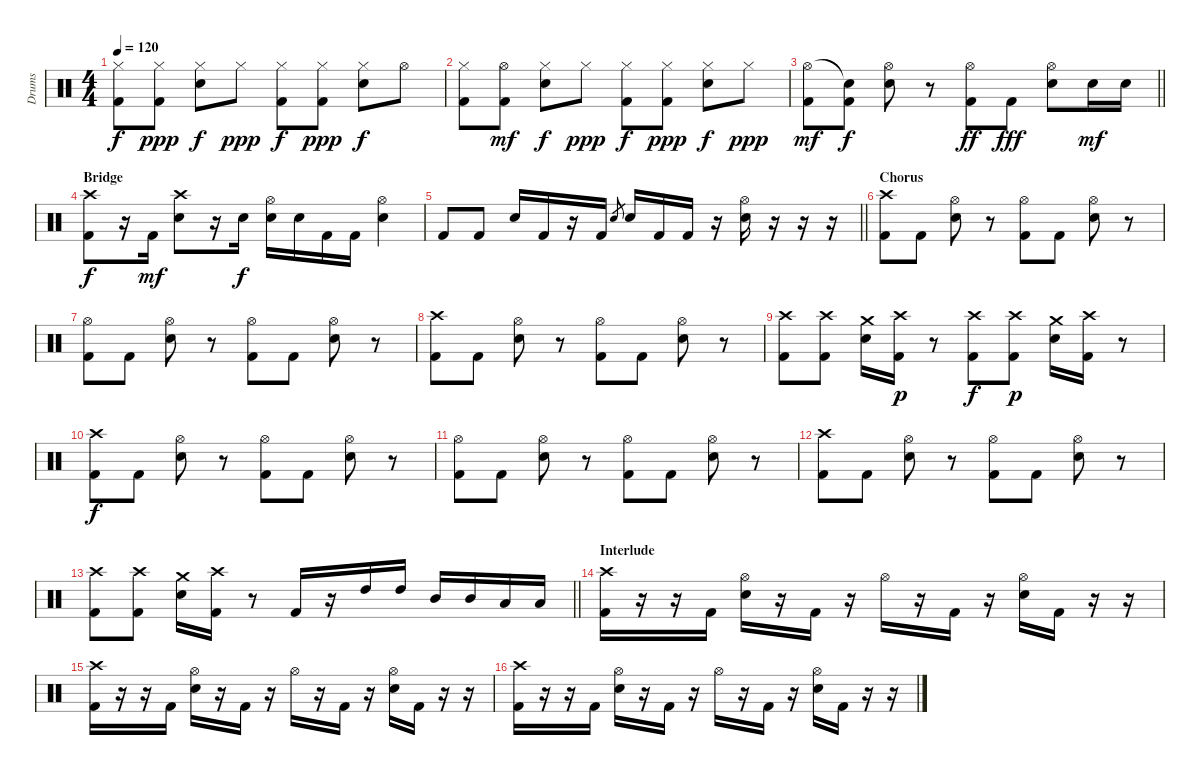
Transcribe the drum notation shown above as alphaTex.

\track ("Drums" "Drums") {instrument percussion}
\staff {score}
\articulation defaults
\ts (4 4)
\tempo 120
\clef neutral
\ks c
("Hi-Hat (closed)" "Kick (hit) 2").8{dy f} ("Hi-Hat (closed)" "Kick (hit) 2").8{dy ppp} ("Hi-Hat (closed)" "Snare (hit) 2").8{dy f} "Hi-Hat (closed)".8{dy ppp} ("Hi-Hat (closed)" "Kick (hit) 2").8{dy f} ("Hi-Hat (closed)" "Kick (hit) 2").8{dy ppp} ("Hi-Hat (closed)" "Snare (hit) 2").8{dy f} "Hi-Hat (open)".8 |
("Hi-Hat (closed)" "Kick (hit) 2").8 ("Hi-Hat (open)" "Kick (hit) 2").8{dy mf} ("Hi-Hat (closed)" "Snare (hit) 2").8{dy f} "Hi-Hat (closed)".8{dy ppp} ("Hi-Hat (closed)" "Kick (hit) 2").8{dy f} ("Hi-Hat (closed)" "Kick (hit) 2").8{dy ppp} ("Hi-Hat (closed)" "Snare (hit) 2").8{dy f} "Hi-Hat (closed)".8{dy ppp} |
\barLineRight lightlight
("Hi-Hat (open)" "Kick (hit) 2").8{dy mf} ("Snare (hit)"{t} "Kick (hit) 2").8{dy f} ("Hi-Hat (open)" "Snare (hit) 2").8 r.8 ("Hi-Hat (open)" "Kick (hit) 2").8{dy ff} "Kick (hit) 2".8{dy fff} ("Hi-Hat (open)" "Snare (hit) 2").8 "Snare (hit) 2".16{dy mf} "Snare (hit) 2".16 |
\section ("" "Bridge")
("Crash high (hit)" "Kick (hit) 2").8{dy f} r.16 "Kick (hit) 2".16{dy mf} ("Crash high (hit)" "Electric Snare (hit)").8 r.16 "Snare (hit) 2".16{dy f} ("Hi-Hat (open)" "Snare (hit) 2").16 "Snare (hit) 2".16 "Kick (hit) 2".16 "Kick (hit) 2".16 ("Hi-Hat (open)" "Snare (hit) 2").4 |
\barLineRight lightlight "Kick (hit) 2".8 "Kick (hit) 2".8 "Snare (hit) 2".16 "Kick (hit) 2".16
r.16 "Kick (hit) 2".16 "Snare (hit) 2".8{gr} "Snare (hit) 2".16 "Kick (hit) 2".16 "Kick (hit) 2".16 r.16 ("Hi-Hat (open)" "Snare (hit) 2").16 r.16 r.16 r.16 |
\section ("" "Chorus")
("Crash high (hit)" "Kick (hit) 2").8 "Kick (hit) 2".8 ("Hi-Hat (open)" "Snare (hit) 2").8 r.8 ("Hi-Hat (open)" "Kick (hit) 2").8 "Kick (hit) 2".8 ("Hi-Hat (open)" "Snare (hit) 2").8 r.8 |
("Hi-Hat (open)" "Kick (hit) 2").8 "Kick (hit) 2".8 ("Hi-Hat (open)" "Snare (hit) 2").8 r.8 ("Hi-Hat (open)" "Kick (hit) 2").8 "Kick (hit) 2".8 ("Hi-Hat (open)" "Snare (hit) 2").8 r.8 |
("Crash high (hit)" "Kick (hit) 2").8 "Kick (hit) 2".8 ("Hi-Hat (open)" "Snare (hit) 2").8 r.8 ("Hi-Hat (open)" "Kick (hit) 2").8 "Kick (hit) 2".8 ("Hi-Hat (open)" "Snare (hit) 2").8 r.8 |
("Crash high (hit)" "Kick (hit) 2").8 ("Crash high (hit)" "Kick (hit) 2").8 ("Crash medium (hit)" "Snare (hit) 2").16 ("Crash high (hit)" "Kick (hit) 2").16{dy p} r.8 ("Crash high (hit)" "Kick (hit) 2").8{dy f} ("Crash high (hit)" "Kick (hit) 2").8{dy p} ("Crash medium (hit)" "Snare (hit) 2").16 ("Crash high (hit)" "Kick (hit) 2").16 r.8 |
("Crash high (hit)" "Kick (hit) 2").8{dy f} "Kick (hit) 2".8 ("Hi-Hat (open)" "Snare (hit) 2").8 r.8 ("Hi-Hat (open)" "Kick (hit) 2").8 "Kick (hit) 2".8 ("Hi-Hat (open)" "Snare (hit) 2").8 r.8 |
("Hi-Hat (open)" "Kick (hit) 2").8 "Kick (hit) 2".8 ("Hi-Hat (open)" "Snare (hit) 2").8 r.8 ("Hi-Hat (open)" "Kick (hit) 2").8 "Kick (hit) 2".8 ("Hi-Hat (open)" "Snare (hit) 2").8 r.8 |
("Crash high (hit)" "Kick (hit) 2").8 "Kick (hit) 2".8 ("Hi-Hat (open)" "Snare (hit) 2").8 r.8 ("Hi-Hat (open)" "Kick (hit) 2").8 "Kick (hit) 2".8 ("Hi-Hat (open)" "Snare (hit) 2").8 r.8 |
\barLineRight lightlight
("Crash high (hit)" "Kick (hit) 2").8 ("Crash high (hit)" "Kick (hit) 2").8 ("Crash medium (hit)" "Snare (hit) 2").16 ("Crash high (hit)" "Kick (hit) 2").16 r.8 "Kick (hit) 2".16 r.16 "High Tom (hit)".16 "High Tom (hit)".16 "Mid Tom (hit)".16 "Mid Tom (hit)".16 "Low Floor Tom (hit)".16 "Low Floor Tom (hit)".16 |
\section ("" "Interlude")
("Crash high (hit)" "Kick (hit) 2").16 r.16 r.16 "Kick (hit) 2".16 ("Hi-Hat (open)" "Snare (hit) 2").16 r.16 "Kick (hit) 2".16 r.16 "Hi-Hat (open)".16 r.16 "Kick (hit) 2".16 r.16 ("Hi-Hat (open)" "Snare (hit) 2").16 "Kick (hit) 2".16 r.16 r.16 |
("Crash high (hit)" "Kick (hit) 2").16 r.16 r.16 "Kick (hit) 2".16 ("Hi-Hat (open)" "Snare (hit) 2").16 r.16 "Kick (hit) 2".16 r.16 "Hi-Hat (open)".16 r.16 "Kick (hit) 2".16 r.16 ("Hi-Hat (open)" "Snare (hit) 2").16 "Kick (hit) 2".16 r.16 r.16 |
("Crash high (hit)" "Kick (hit) 2").16 r.16 r.16 "Kick (hit) 2".16 ("Hi-Hat (open)" "Snare (hit) 2").16 r.16 "Kick (hit) 2".16 r.16 "Hi-Hat (open)".16 r.16 "Kick (hit) 2".16 r.16 ("Hi-Hat (open)" "Snare (hit) 2").16 "Kick (hit) 2".16 r.16 r.16
